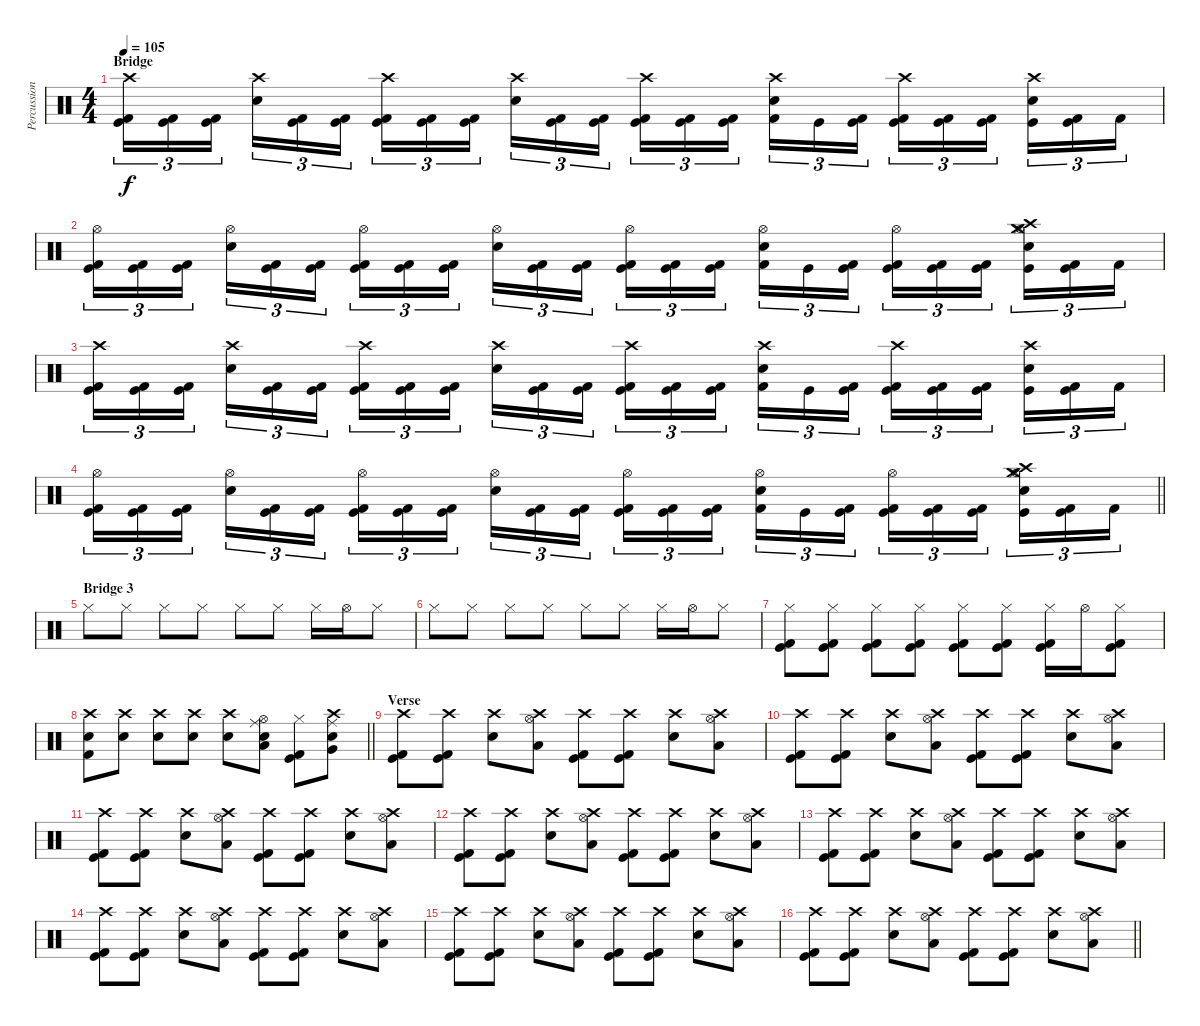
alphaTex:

\track ("Percussion" "Percussion") {instrument percussion}
\staff {score}
\articulation defaults
\ts (4 4)
\section ("" "Bridge")
\tempo 105
\clef neutral
\ks c
("Crash high (hit)" "Kick (hit)" "Kick (hit) 2").16{tu (3 2) dy f} ("Kick (hit)" "Kick (hit) 2").16{tu (3 2)} ("Kick (hit)" "Kick (hit) 2").16{tu (3 2) beam splitsecondary} ("Crash high (hit)" "Snare (hit) 2").16{tu (3 2)} ("Kick (hit) 2" "Kick (hit)").16{tu (3 2)} ("Kick (hit) 2" "Kick (hit)").16{tu (3 2)} ("Crash high (hit)" "Kick (hit) 2" "Kick (hit)").16{tu (3 2)} ("Kick (hit) 2" "Kick (hit)").16{tu (3 2)} ("Kick (hit) 2" "Kick (hit)").16{tu (3 2) beam splitsecondary} ("Crash high (hit)" "Snare (hit) 2").16{tu (3 2)} ("Kick (hit)" "Kick (hit) 2").16{tu (3 2)} ("Kick (hit)" "Kick (hit) 2").16{tu (3 2)} ("Crash high (hit)" "Kick (hit)" "Kick (hit) 2").16{tu (3 2)} ("Kick (hit)" "Kick (hit) 2").16{tu (3 2)} ("Kick (hit)" "Kick (hit) 2").16{tu (3 2) beam splitsecondary} ("Crash high (hit)" "Snare (hit) 2" "Kick (hit) 2").16{tu (3 2)} "Kick (hit)".16{tu (3 2)} ("Kick (hit) 2" "Kick (hit)").16{tu (3 2)} ("Crash high (hit)" "Kick (hit) 2" "Kick (hit)").16{tu (3 2)} ("Kick (hit) 2" "Kick (hit)").16{tu (3 2)} ("Kick (hit) 2" "Kick (hit)").16{tu (3 2) beam splitsecondary} ("Crash high (hit)" "Snare (hit) 2" "Kick (hit)").16{tu (3 2)} ("Kick (hit) 2" "Kick (hit)").16{tu (3 2)} "Kick (hit) 2".16{tu (3 2)} |
("Hi-Hat (open)" "Kick (hit)" "Kick (hit) 2").16{tu (3 2)} ("Kick (hit)" "Kick (hit) 2").16{tu (3 2)} ("Kick (hit)" "Kick (hit) 2").16{tu (3 2) beam splitsecondary} ("Hi-Hat (open)" "Snare (hit) 2").16{tu (3 2)} ("Kick (hit) 2" "Kick (hit)").16{tu (3 2)} ("Kick (hit) 2" "Kick (hit)").16{tu (3 2)} ("Hi-Hat (open)" "Kick (hit) 2" "Kick (hit)").16{tu (3 2)} ("Kick (hit) 2" "Kick (hit)").16{tu (3 2)} ("Kick (hit) 2" "Kick (hit)").16{tu (3 2) beam splitsecondary} ("Hi-Hat (open)" "Snare (hit) 2").16{tu (3 2)} ("Kick (hit)" "Kick (hit) 2").16{tu (3 2)} ("Kick (hit)" "Kick (hit) 2").16{tu (3 2)} ("Hi-Hat (open)" "Kick (hit)" "Kick (hit) 2").16{tu (3 2)} ("Kick (hit)" "Kick (hit) 2").16{tu (3 2)} ("Kick (hit)" "Kick (hit) 2").16{tu (3 2) beam splitsecondary} ("Hi-Hat (open)" "Snare (hit) 2" "Kick (hit) 2").16{tu (3 2)} "Kick (hit)".16{tu (3 2)} ("Kick (hit) 2" "Kick (hit)").16{tu (3 2)} ("Hi-Hat (open)" "Kick (hit) 2" "Kick (hit)").16{tu (3 2)} ("Kick (hit) 2" "Kick (hit)").16{tu (3 2)} ("Kick (hit) 2" "Kick (hit)").16{tu (3 2) beam splitsecondary} ("Hi-Hat (closed)" "Crash high (hit)" "Hi-Hat (open)" "Crash medium (hit)" "Snare (hit) 2" "Kick (hit)").16{tu (3 2)} ("Kick (hit) 2" "Kick (hit)").16{tu (3 2)} "Kick (hit) 2".16{tu (3 2)} |
("Crash high (hit)" "Kick (hit)" "Kick (hit) 2").16{tu (3 2)} ("Kick (hit)" "Kick (hit) 2").16{tu (3 2)} ("Kick (hit)" "Kick (hit) 2").16{tu (3 2) beam splitsecondary} ("Crash high (hit)" "Snare (hit) 2").16{tu (3 2)} ("Kick (hit) 2" "Kick (hit)").16{tu (3 2)} ("Kick (hit) 2" "Kick (hit)").16{tu (3 2)} ("Crash high (hit)" "Kick (hit) 2" "Kick (hit)").16{tu (3 2)} ("Kick (hit) 2" "Kick (hit)").16{tu (3 2)} ("Kick (hit) 2" "Kick (hit)").16{tu (3 2) beam splitsecondary} ("Crash high (hit)" "Snare (hit) 2").16{tu (3 2)} ("Kick (hit)" "Kick (hit) 2").16{tu (3 2)} ("Kick (hit)" "Kick (hit) 2").16{tu (3 2)} ("Crash high (hit)" "Kick (hit)" "Kick (hit) 2").16{tu (3 2)} ("Kick (hit)" "Kick (hit) 2").16{tu (3 2)} ("Kick (hit)" "Kick (hit) 2").16{tu (3 2) beam splitsecondary} ("Crash high (hit)" "Snare (hit) 2" "Kick (hit) 2").16{tu (3 2)} "Kick (hit)".16{tu (3 2)} ("Kick (hit) 2" "Kick (hit)").16{tu (3 2)} ("Crash high (hit)" "Kick (hit) 2" "Kick (hit)").16{tu (3 2)} ("Kick (hit) 2" "Kick (hit)").16{tu (3 2)} ("Kick (hit) 2" "Kick (hit)").16{tu (3 2) beam splitsecondary} ("Crash high (hit)" "Snare (hit) 2" "Kick (hit)").16{tu (3 2)} ("Kick (hit) 2" "Kick (hit)").16{tu (3 2)} "Kick (hit) 2".16{tu (3 2)} |
\barLineRight lightlight
("Hi-Hat (open)" "Kick (hit)" "Kick (hit) 2").16{tu (3 2)} ("Kick (hit)" "Kick (hit) 2").16{tu (3 2)} ("Kick (hit)" "Kick (hit) 2").16{tu (3 2) beam splitsecondary} ("Hi-Hat (open)" "Snare (hit) 2").16{tu (3 2)} ("Kick (hit) 2" "Kick (hit)").16{tu (3 2)} ("Kick (hit) 2" "Kick (hit)").16{tu (3 2)} ("Hi-Hat (open)" "Kick (hit) 2" "Kick (hit)").16{tu (3 2)} ("Kick (hit) 2" "Kick (hit)").16{tu (3 2)} ("Kick (hit) 2" "Kick (hit)").16{tu (3 2) beam splitsecondary} ("Hi-Hat (open)" "Snare (hit) 2").16{tu (3 2)} ("Kick (hit)" "Kick (hit) 2").16{tu (3 2)} ("Kick (hit)" "Kick (hit) 2").16{tu (3 2)} ("Hi-Hat (open)" "Kick (hit)" "Kick (hit) 2").16{tu (3 2)} ("Kick (hit)" "Kick (hit) 2").16{tu (3 2)} ("Kick (hit)" "Kick (hit) 2").16{tu (3 2) beam splitsecondary} ("Hi-Hat (open)" "Snare (hit) 2" "Kick (hit) 2").16{tu (3 2)} "Kick (hit)".16{tu (3 2)} ("Kick (hit) 2" "Kick (hit)").16{tu (3 2)} ("Hi-Hat (open)" "Kick (hit) 2" "Kick (hit)").16{tu (3 2)} ("Kick (hit) 2" "Kick (hit)").16{tu (3 2)} ("Kick (hit) 2" "Kick (hit)").16{tu (3 2) beam splitsecondary} ("Hi-Hat (closed)" "Crash high (hit)" "Hi-Hat (open)" "Crash medium (hit)" "Snare (hit) 2" "Kick (hit)").16{tu (3 2)} ("Kick (hit) 2" "Kick (hit)").16{tu (3 2)} "Kick (hit) 2".16{tu (3 2)} |
\section ("" "Bridge 3")
"Hi-Hat (closed)".8 "Hi-Hat (closed)".8 "Hi-Hat (closed)".8 "Hi-Hat (closed)".8 "Hi-Hat (closed)".8 "Hi-Hat (closed)".8 "Hi-Hat (closed)".16 "Hi-Hat (open)".16 "Hi-Hat (closed)".8 |
"Hi-Hat (closed)".8 "Hi-Hat (closed)".8 "Hi-Hat (closed)".8 "Hi-Hat (closed)".8 "Hi-Hat (closed)".8 "Hi-Hat (closed)".8 "Hi-Hat (closed)".16 "Hi-Hat (open)".16 "Hi-Hat (closed)".8 |
("Hi-Hat (closed)" "Kick (hit) 2" "Kick (hit)").8 ("Hi-Hat (closed)" "Kick (hit) 2" "Kick (hit)").8 ("Hi-Hat (closed)" "Kick (hit) 2" "Kick (hit)").8 ("Hi-Hat (closed)" "Kick (hit) 2" "Kick (hit)").8 ("Hi-Hat (closed)" "Kick (hit) 2" "Kick (hit)").8 ("Hi-Hat (closed)" "Kick (hit) 2" "Kick (hit)").8 ("Hi-Hat (closed)" "Kick (hit) 2" "Kick (hit)").16 "Hi-Hat (open)".16 ("Hi-Hat (closed)" "Kick (hit) 2" "Kick (hit)").8 |
\barLineRight lightlight
("Crash high (hit)" "Snare (hit) 2" "Kick (hit) 2").8 ("Crash high (hit)" "Snare (hit) 2").8 ("Crash high (hit)" "Snare (hit) 2").8 ("Crash high (hit)" "Snare (hit) 2").8 ("Crash high (hit)" "Snare (hit) 2").8 ("Hi-Hat (open)" "Ride (middle)" "Low Floor Tom (hit)" "Snare (hit) 2").8 ("Hi-Hat (closed)" "Kick (hit)" "Kick (hit) 2").8 ("Crash high (hit)" "Ride (middle)" "Very Low Tom (hit)" "Snare (hit) 2").8 |
\section ("" "Verse")
("Crash high (hit)" "Kick (hit)" "Kick (hit) 2").8 ("Crash high (hit)" "Kick (hit)" "Kick (hit) 2").8 ("Crash high (hit)" "Snare (hit) 2").8 ("Crash high (hit)" "Low Floor Tom (hit)" "Hi-Hat (open)").8 ("Crash high (hit)" "Kick (hit)" "Kick (hit) 2").8 ("Crash high (hit)" "Kick (hit)" "Kick (hit) 2").8 ("Crash high (hit)" "Snare (hit) 2").8 ("Crash high (hit)" "Low Floor Tom (hit)" "Hi-Hat (open)").8 |
("Crash high (hit)" "Kick (hit)" "Kick (hit) 2").8 ("Crash high (hit)" "Kick (hit)" "Kick (hit) 2").8 ("Crash high (hit)" "Snare (hit) 2").8 ("Crash high (hit)" "Low Floor Tom (hit)" "Hi-Hat (open)").8 ("Crash high (hit)" "Kick (hit)" "Kick (hit) 2").8 ("Crash high (hit)" "Kick (hit)" "Kick (hit) 2").8 ("Crash high (hit)" "Snare (hit) 2").8 ("Crash high (hit)" "Low Floor Tom (hit)" "Hi-Hat (open)").8 |
("Crash high (hit)" "Kick (hit)" "Kick (hit) 2").8 ("Crash high (hit)" "Kick (hit)" "Kick (hit) 2").8 ("Crash high (hit)" "Snare (hit) 2").8 ("Crash high (hit)" "Low Floor Tom (hit)" "Hi-Hat (open)").8 ("Crash high (hit)" "Kick (hit)" "Kick (hit) 2").8 ("Crash high (hit)" "Kick (hit)" "Kick (hit) 2").8 ("Crash high (hit)" "Snare (hit) 2").8 ("Crash high (hit)" "Low Floor Tom (hit)" "Hi-Hat (open)").8 |
("Crash high (hit)" "Kick (hit)" "Kick (hit) 2").8 ("Crash high (hit)" "Kick (hit)" "Kick (hit) 2").8 ("Crash high (hit)" "Snare (hit) 2").8 ("Crash high (hit)" "Low Floor Tom (hit)" "Hi-Hat (open)").8 ("Crash high (hit)" "Kick (hit)" "Kick (hit) 2").8 ("Crash high (hit)" "Kick (hit)" "Kick (hit) 2").8 ("Crash high (hit)" "Snare (hit) 2").8 ("Crash high (hit)" "Low Floor Tom (hit)" "Hi-Hat (open)").8 |
("Crash high (hit)" "Kick (hit)" "Kick (hit) 2").8 ("Crash high (hit)" "Kick (hit)" "Kick (hit) 2").8 ("Crash high (hit)" "Snare (hit) 2").8 ("Crash high (hit)" "Low Floor Tom (hit)" "Hi-Hat (open)").8 ("Crash high (hit)" "Kick (hit)" "Kick (hit) 2").8 ("Crash high (hit)" "Kick (hit)" "Kick (hit) 2").8 ("Crash high (hit)" "Snare (hit) 2").8 ("Crash high (hit)" "Low Floor Tom (hit)" "Hi-Hat (open)").8 |
("Crash high (hit)" "Kick (hit)" "Kick (hit) 2").8 ("Crash high (hit)" "Kick (hit)" "Kick (hit) 2").8 ("Crash high (hit)" "Snare (hit) 2").8 ("Crash high (hit)" "Low Floor Tom (hit)" "Hi-Hat (open)").8 ("Crash high (hit)" "Kick (hit)" "Kick (hit) 2").8 ("Crash high (hit)" "Kick (hit)" "Kick (hit) 2").8 ("Crash high (hit)" "Snare (hit) 2").8 ("Crash high (hit)" "Low Floor Tom (hit)" "Hi-Hat (open)").8 |
("Crash high (hit)" "Kick (hit)" "Kick (hit) 2").8 ("Crash high (hit)" "Kick (hit)" "Kick (hit) 2").8 ("Crash high (hit)" "Snare (hit) 2").8 ("Crash high (hit)" "Low Floor Tom (hit)" "Hi-Hat (open)").8 ("Crash high (hit)" "Kick (hit)" "Kick (hit) 2").8 ("Crash high (hit)" "Kick (hit)" "Kick (hit) 2").8 ("Crash high (hit)" "Snare (hit) 2").8 ("Crash high (hit)" "Low Floor Tom (hit)" "Hi-Hat (open)").8 |
\barLineRight lightlight
("Crash high (hit)" "Kick (hit)" "Kick (hit) 2").8 ("Crash high (hit)" "Kick (hit)" "Kick (hit) 2").8 ("Crash high (hit)" "Snare (hit) 2").8 ("Crash high (hit)" "Low Floor Tom (hit)" "Hi-Hat (open)").8 ("Crash high (hit)" "Kick (hit)" "Kick (hit) 2").8 ("Crash high (hit)" "Kick (hit)" "Kick (hit) 2").8 ("Crash high (hit)" "Snare (hit) 2").8 ("Crash high (hit)" "Low Floor Tom (hit)" "Hi-Hat (open)").8
